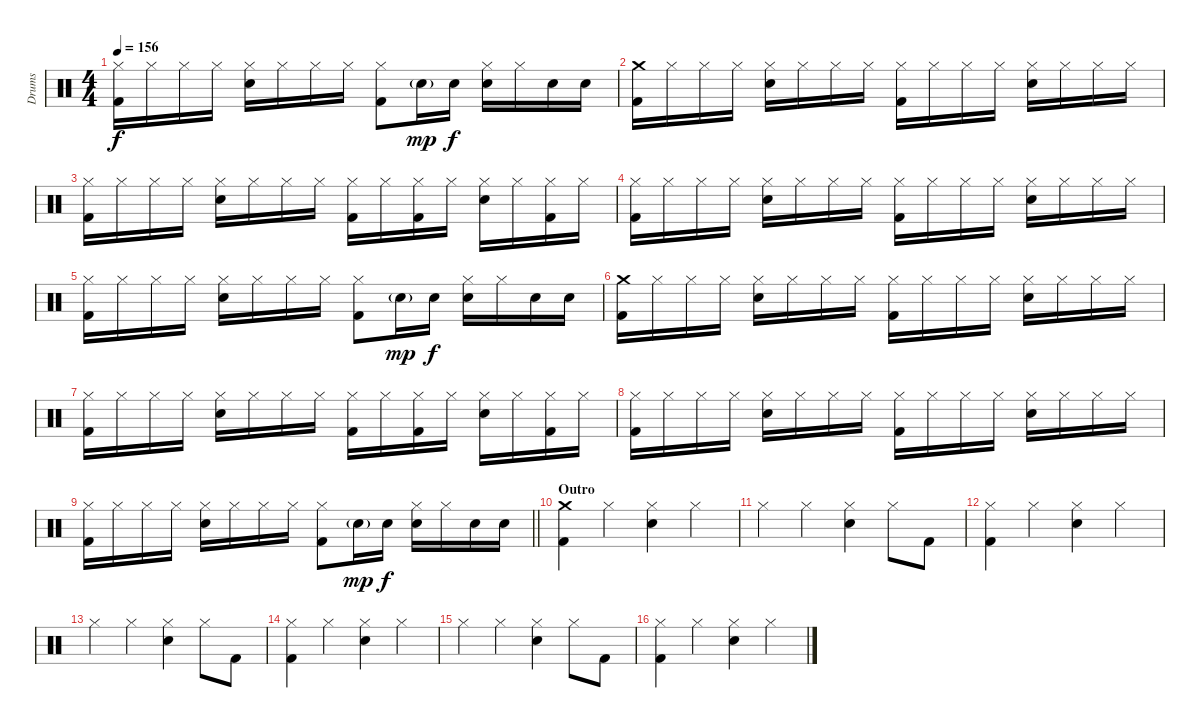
\track ("Drums" "Drums") {instrument percussion}
\staff {score}
\articulation defaults
\ts (4 4)
\tempo 156
\clef neutral
\ks c
("Hi-Hat (closed)" "Kick (hit) 2").16{dy f} "Hi-Hat (closed)".16 "Hi-Hat (closed)".16 "Hi-Hat (closed)".16 ("Hi-Hat (closed)" "Electric Snare (hit)").16 "Hi-Hat (closed)".16 "Hi-Hat (closed)".16 "Hi-Hat (closed)".16 ("Hi-Hat (closed)" "Kick (hit) 2").8 "Electric Snare (hit)"{g}.16{dy mp} "Electric Snare (hit)".16{dy f} ("Hi-Hat (closed)" "Electric Snare (hit)").16 "Hi-Hat (closed)".16 "Electric Snare (hit)".16 "Electric Snare (hit)".16 |
("Crash medium (hit)" "Kick (hit) 2").16 "Hi-Hat (closed)".16 "Hi-Hat (closed)".16 "Hi-Hat (closed)".16 ("Hi-Hat (closed)" "Electric Snare (hit)").16 "Hi-Hat (closed)".16 "Hi-Hat (closed)".16 "Hi-Hat (closed)".16 ("Hi-Hat (closed)" "Kick (hit) 2").16 "Hi-Hat (closed)".16 "Hi-Hat (closed)".16 "Hi-Hat (closed)".16 ("Hi-Hat (closed)" "Electric Snare (hit)").16 "Hi-Hat (closed)".16 "Hi-Hat (closed)".16 "Hi-Hat (closed)".16 |
("Hi-Hat (closed)" "Kick (hit) 2").16 "Hi-Hat (closed)".16 "Hi-Hat (closed)".16 "Hi-Hat (closed)".16 ("Hi-Hat (closed)" "Electric Snare (hit)").16 "Hi-Hat (closed)".16 "Hi-Hat (closed)".16 "Hi-Hat (closed)".16 ("Hi-Hat (closed)" "Kick (hit) 2").16 "Hi-Hat (closed)".16 ("Hi-Hat (closed)" "Kick (hit) 2").16 "Hi-Hat (closed)".16 ("Hi-Hat (closed)" "Electric Snare (hit)").16 "Hi-Hat (closed)".16 ("Hi-Hat (closed)" "Kick (hit) 2").16 "Hi-Hat (closed)".16 |
("Hi-Hat (closed)" "Kick (hit) 2").16 "Hi-Hat (closed)".16 "Hi-Hat (closed)".16 "Hi-Hat (closed)".16 ("Hi-Hat (closed)" "Electric Snare (hit)").16 "Hi-Hat (closed)".16 "Hi-Hat (closed)".16 "Hi-Hat (closed)".16 ("Hi-Hat (closed)" "Kick (hit) 2").16 "Hi-Hat (closed)".16 "Hi-Hat (closed)".16 "Hi-Hat (closed)".16 ("Hi-Hat (closed)" "Electric Snare (hit)").16 "Hi-Hat (closed)".16 "Hi-Hat (closed)".16 "Hi-Hat (closed)".16 |
("Hi-Hat (closed)" "Kick (hit) 2").16 "Hi-Hat (closed)".16 "Hi-Hat (closed)".16 "Hi-Hat (closed)".16 ("Hi-Hat (closed)" "Electric Snare (hit)").16 "Hi-Hat (closed)".16 "Hi-Hat (closed)".16 "Hi-Hat (closed)".16 ("Hi-Hat (closed)" "Kick (hit) 2").8 "Electric Snare (hit)"{g}.16{dy mp} "Electric Snare (hit)".16{dy f} ("Hi-Hat (closed)" "Electric Snare (hit)").16 "Hi-Hat (closed)".16 "Electric Snare (hit)".16 "Electric Snare (hit)".16 |
("Crash medium (hit)" "Kick (hit) 2").16 "Hi-Hat (closed)".16 "Hi-Hat (closed)".16 "Hi-Hat (closed)".16 ("Hi-Hat (closed)" "Electric Snare (hit)").16 "Hi-Hat (closed)".16 "Hi-Hat (closed)".16 "Hi-Hat (closed)".16 ("Hi-Hat (closed)" "Kick (hit) 2").16 "Hi-Hat (closed)".16 "Hi-Hat (closed)".16 "Hi-Hat (closed)".16 ("Hi-Hat (closed)" "Electric Snare (hit)").16 "Hi-Hat (closed)".16 "Hi-Hat (closed)".16 "Hi-Hat (closed)".16 |
("Hi-Hat (closed)" "Kick (hit) 2").16 "Hi-Hat (closed)".16 "Hi-Hat (closed)".16 "Hi-Hat (closed)".16 ("Hi-Hat (closed)" "Electric Snare (hit)").16 "Hi-Hat (closed)".16 "Hi-Hat (closed)".16 "Hi-Hat (closed)".16 ("Hi-Hat (closed)" "Kick (hit) 2").16 "Hi-Hat (closed)".16 ("Hi-Hat (closed)" "Kick (hit) 2").16 "Hi-Hat (closed)".16 ("Hi-Hat (closed)" "Electric Snare (hit)").16 "Hi-Hat (closed)".16 ("Hi-Hat (closed)" "Kick (hit) 2").16 "Hi-Hat (closed)".16 |
("Hi-Hat (closed)" "Kick (hit) 2").16 "Hi-Hat (closed)".16 "Hi-Hat (closed)".16 "Hi-Hat (closed)".16 ("Hi-Hat (closed)" "Electric Snare (hit)").16 "Hi-Hat (closed)".16 "Hi-Hat (closed)".16 "Hi-Hat (closed)".16 ("Hi-Hat (closed)" "Kick (hit) 2").16 "Hi-Hat (closed)".16 "Hi-Hat (closed)".16 "Hi-Hat (closed)".16 ("Hi-Hat (closed)" "Electric Snare (hit)").16 "Hi-Hat (closed)".16 "Hi-Hat (closed)".16 "Hi-Hat (closed)".16 |
\barLineRight lightlight
("Hi-Hat (closed)" "Kick (hit) 2").16 "Hi-Hat (closed)".16 "Hi-Hat (closed)".16 "Hi-Hat (closed)".16 ("Hi-Hat (closed)" "Electric Snare (hit)").16 "Hi-Hat (closed)".16 "Hi-Hat (closed)".16 "Hi-Hat (closed)".16 ("Hi-Hat (closed)" "Kick (hit) 2").8 "Electric Snare (hit)"{g}.16{dy mp} "Electric Snare (hit)".16{dy f} ("Hi-Hat (closed)" "Electric Snare (hit)").16 "Hi-Hat (closed)".16 "Electric Snare (hit)".16 "Electric Snare (hit)".16 |
\section ("" "Outro")
("Crash medium (hit)" "Kick (hit) 2").4{volume 8 balance 2} "Hi-Hat (closed)".4 ("Hi-Hat (closed)" "Electric Snare (hit)").4 "Hi-Hat (closed)".4 |
"Hi-Hat (closed)".4 "Hi-Hat (closed)".4 ("Hi-Hat (closed)" "Electric Snare (hit)").4 "Hi-Hat (closed)".8 "Kick (hit) 2".8 |
("Hi-Hat (closed)" "Kick (hit) 2").4 "Hi-Hat (closed)".4 ("Hi-Hat (closed)" "Electric Snare (hit)").4 "Hi-Hat (closed)".4 |
"Hi-Hat (closed)".4 "Hi-Hat (closed)".4 ("Hi-Hat (closed)" "Electric Snare (hit)").4 "Hi-Hat (closed)".8 "Kick (hit) 2".8 |
("Hi-Hat (closed)" "Kick (hit) 2").4 "Hi-Hat (closed)".4 ("Hi-Hat (closed)" "Electric Snare (hit)").4 "Hi-Hat (closed)".4 |
"Hi-Hat (closed)".4 "Hi-Hat (closed)".4 ("Hi-Hat (closed)" "Electric Snare (hit)").4 "Hi-Hat (closed)".8 "Kick (hit) 2".8 |
("Hi-Hat (closed)" "Kick (hit) 2").4 "Hi-Hat (closed)".4 ("Hi-Hat (closed)" "Electric Snare (hit)").4 "Hi-Hat (closed)".4
